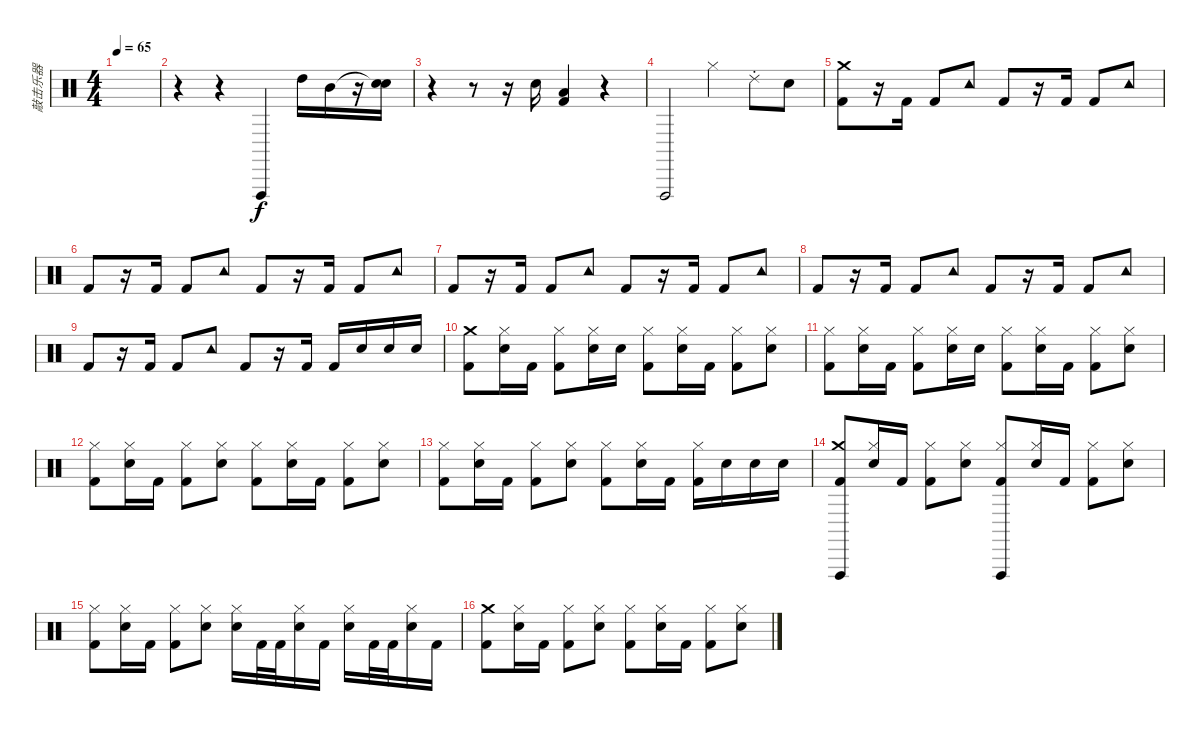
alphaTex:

\track ("敲击乐器" "敲击乐器") {instrument percussion}
\staff {score}
\articulation defaults
\ts (4 4)
\tempo 65
\clef neutral
\ks c
|
r.4 r.4 "Vibraslap (hit)".4{volume 16} "High Tom (hit)".16 "Mid Tom (hit)".16 r.16 ("Snare (hit)"{t} "Electric Snare (hit)").16 |
r.4 r.8 r.16 "Electric Snare (hit)".16 ("Low Tom (hit)" "Kick (hit) 2").4 r.4 |
"Vibraslap (hit)".2{volume 16} "Hi-Hat (closed)".4 "Ride (choke) 2".8 "Electric Snare (hit)".8 |
("Crash medium (hit)" "Kick (hit) 2").8 r.16 "Kick (hit) 2".16 "Kick (hit) 2".8 "Tambourine (hit)".8 "Kick (hit) 2".8 r.16 "Kick (hit) 2".16 "Kick (hit) 2".8 "Tambourine (hit)".8 |
"Kick (hit) 2".8 r.16 "Kick (hit) 2".16 "Kick (hit) 2".8 "Tambourine (hit)".8 "Kick (hit) 2".8 r.16 "Kick (hit) 2".16 "Kick (hit) 2".8 "Tambourine (hit)".8 |
"Kick (hit) 2".8 r.16 "Kick (hit) 2".16 "Kick (hit) 2".8 "Tambourine (hit)".8 "Kick (hit) 2".8 r.16 "Kick (hit) 2".16 "Kick (hit) 2".8 "Tambourine (hit)".8 |
"Kick (hit) 2".8 r.16 "Kick (hit) 2".16 "Kick (hit) 2".8 "Tambourine (hit)".8 "Kick (hit) 2".8 r.16 "Kick (hit) 2".16 "Kick (hit) 2".8 "Tambourine (hit)".8 |
"Kick (hit) 2".8 r.16 "Kick (hit) 2".16 "Kick (hit) 2".8 "Tambourine (hit)".8 "Kick (hit) 2".8 r.16 "Kick (hit) 2".16 "Kick (hit) 2".16 "Electric Snare (hit)".16 "Electric Snare (hit)".16 "Electric Snare (hit)".16 |
("Crash medium (hit)" "Kick (hit) 2").8 ("Hi-Hat (closed)" "Electric Snare (hit)").16 "Kick (hit) 2".16 ("Hi-Hat (closed)" "Kick (hit) 2").8 ("Hi-Hat (closed)" "Electric Snare (hit)").16 "Electric Snare (hit)".16 ("Hi-Hat (closed)" "Kick (hit) 2").8 ("Hi-Hat (closed)" "Electric Snare (hit)").16 "Kick (hit) 2".16 ("Hi-Hat (closed)" "Kick (hit) 2").8 ("Hi-Hat (closed)" "Electric Snare (hit)").8 |
("Hi-Hat (closed)" "Kick (hit) 2").8 ("Hi-Hat (closed)" "Electric Snare (hit)").16 "Kick (hit) 2".16 ("Hi-Hat (closed)" "Kick (hit) 2").8 ("Hi-Hat (closed)" "Electric Snare (hit)").16 "Electric Snare (hit)".16 ("Hi-Hat (closed)" "Kick (hit) 2").8 ("Hi-Hat (closed)" "Electric Snare (hit)").16 "Kick (hit) 2".16 ("Hi-Hat (closed)" "Kick (hit) 2").8 ("Hi-Hat (closed)" "Electric Snare (hit)").8 |
("Hi-Hat (closed)" "Kick (hit) 2").8 ("Hi-Hat (closed)" "Electric Snare (hit)").16 "Kick (hit) 2".16 ("Hi-Hat (closed)" "Kick (hit) 2").8 ("Hi-Hat (closed)" "Electric Snare (hit)").8 ("Hi-Hat (closed)" "Kick (hit) 2").8 ("Hi-Hat (closed)" "Electric Snare (hit)").16 "Kick (hit) 2".16 ("Hi-Hat (closed)" "Kick (hit) 2").8 ("Hi-Hat (closed)" "Electric Snare (hit)").8 |
("Hi-Hat (closed)" "Kick (hit) 2").8 ("Hi-Hat (closed)" "Electric Snare (hit)").16 "Kick (hit) 2".16 ("Hi-Hat (closed)" "Kick (hit) 2").8 ("Hi-Hat (closed)" "Electric Snare (hit)").8 ("Hi-Hat (closed)" "Kick (hit) 2").8 ("Hi-Hat (closed)" "Electric Snare (hit)").16 "Kick (hit) 2".16 ("Hi-Hat (closed)" "Kick (hit) 2").16 "Electric Snare (hit)".16 "Electric Snare (hit)".16 "Electric Snare (hit)".16 |
("Crash medium (hit)" "Vibraslap (hit)" "Kick (hit) 2").8 ("Hi-Hat (closed)" "Electric Snare (hit)").16 "Kick (hit) 2".16 ("Hi-Hat (closed)" "Kick (hit) 2").8 ("Hi-Hat (closed)" "Electric Snare (hit)").8 ("Hi-Hat (closed)" "Vibraslap (hit)" "Kick (hit) 2").8 ("Hi-Hat (closed)" "Electric Snare (hit)").16 "Kick (hit) 2".16 ("Hi-Hat (closed)" "Kick (hit) 2").8 ("Hi-Hat (closed)" "Electric Snare (hit)").8 |
("Hi-Hat (closed)" "Kick (hit) 2").8 ("Hi-Hat (closed)" "Electric Snare (hit)").16 "Kick (hit) 2".16 ("Hi-Hat (closed)" "Kick (hit) 2").8 ("Hi-Hat (closed)" "Electric Snare (hit)").8 ("Hi-Hat (closed)" "Electric Snare (hit)").16 "Kick (hit) 2".32 "Kick (hit) 2".32 ("Hi-Hat (closed)" "Electric Snare (hit)").16 "Kick (hit) 2".16 ("Hi-Hat (closed)" "Electric Snare (hit)").16 "Kick (hit) 2".32 "Kick (hit) 2".32 ("Hi-Hat (closed)" "Electric Snare (hit)").16 "Kick (hit) 2".16 |
("Crash medium (hit)" "Kick (hit) 2").8 ("Hi-Hat (closed)" "Electric Snare (hit)").16 "Kick (hit) 2".16 ("Hi-Hat (closed)" "Kick (hit) 2").8 ("Hi-Hat (closed)" "Electric Snare (hit)").8 ("Hi-Hat (closed)" "Kick (hit) 2").8 ("Hi-Hat (closed)" "Electric Snare (hit)").16 "Kick (hit) 2".16 ("Hi-Hat (closed)" "Kick (hit) 2").8 ("Hi-Hat (closed)" "Electric Snare (hit)").8
